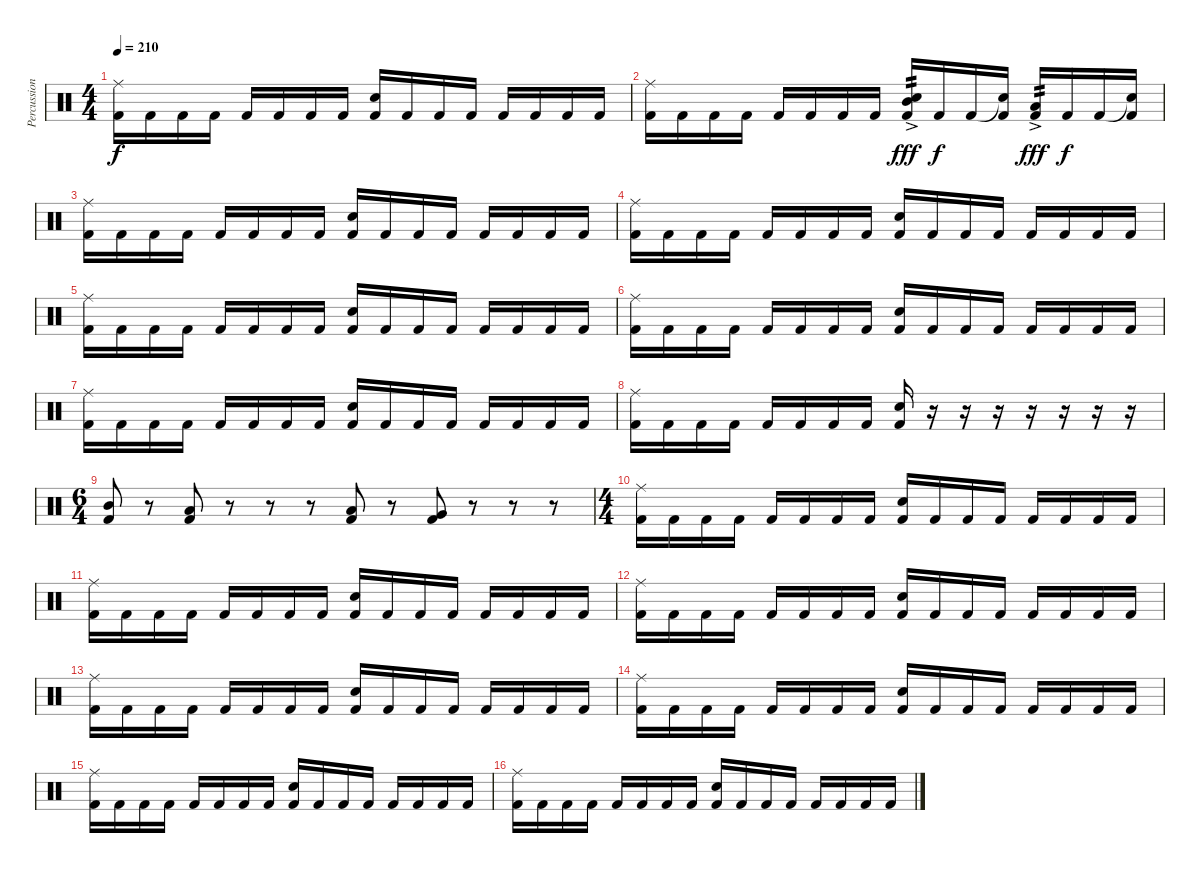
\track ("Percussions" "Percussion") {instrument percussion}
\staff {score}
\articulation defaults
\ts (4 4)
\tempo 210
\clef neutral
\ks c
("Ride (middle)" "Kick (hit) 2").16{dy f} "Kick (hit) 2".16 "Kick (hit) 2".16 "Kick (hit) 2".16 "Kick (hit) 2".16 "Kick (hit) 2".16 "Kick (hit) 2".16 "Kick (hit) 2".16 ("Snare (hit) 2" "Kick (hit) 2").16 "Kick (hit) 2".16 "Kick (hit) 2".16 "Kick (hit) 2".16 "Kick (hit) 2".16 "Kick (hit) 2".16 "Kick (hit) 2".16 "Kick (hit) 2".16 |
("Ride (middle)" "Kick (hit) 2").16 "Kick (hit) 2".16 "Kick (hit) 2".16 "Kick (hit) 2".16 "Kick (hit) 2".16 "Kick (hit) 2".16 "Kick (hit) 2".16 "Kick (hit) 2".16 ("Mid Tom (hit)"{ac} "Snare (hit) 2" "Kick (hit) 2").16{tp 2 dy fff} "Kick (hit) 2".16{dy f} "Kick (hit) 2".16 ("Snare (hit)"{t} "Kick (hit) 2").16 ("Low Tom (hit)"{ac} "Kick (hit) 2").16{tp 2 dy fff} "Kick (hit) 2".16{dy f} "Kick (hit) 2".16 ("Snare (hit)"{t} "Kick (hit) 2").16 |
("Ride (middle)" "Kick (hit) 2").16 "Kick (hit) 2".16 "Kick (hit) 2".16 "Kick (hit) 2".16 "Kick (hit) 2".16 "Kick (hit) 2".16 "Kick (hit) 2".16 "Kick (hit) 2".16 ("Snare (hit) 2" "Kick (hit) 2").16 "Kick (hit) 2".16 "Kick (hit) 2".16 "Kick (hit) 2".16 "Kick (hit) 2".16 "Kick (hit) 2".16 "Kick (hit) 2".16 "Kick (hit) 2".16 |
("Ride (middle)" "Kick (hit) 2").16 "Kick (hit) 2".16 "Kick (hit) 2".16 "Kick (hit) 2".16 "Kick (hit) 2".16 "Kick (hit) 2".16 "Kick (hit) 2".16 "Kick (hit) 2".16 ("Snare (hit) 2" "Kick (hit) 2").16 "Kick (hit) 2".16 "Kick (hit) 2".16 "Kick (hit) 2".16 "Kick (hit) 2".16 "Kick (hit) 2".16 "Kick (hit) 2".16 "Kick (hit) 2".16 |
("Ride (middle)" "Kick (hit) 2").16 "Kick (hit) 2".16 "Kick (hit) 2".16 "Kick (hit) 2".16 "Kick (hit) 2".16 "Kick (hit) 2".16 "Kick (hit) 2".16 "Kick (hit) 2".16 ("Snare (hit) 2" "Kick (hit) 2").16 "Kick (hit) 2".16 "Kick (hit) 2".16 "Kick (hit) 2".16 "Kick (hit) 2".16 "Kick (hit) 2".16 "Kick (hit) 2".16 "Kick (hit) 2".16 |
("Ride (middle)" "Kick (hit) 2").16 "Kick (hit) 2".16 "Kick (hit) 2".16 "Kick (hit) 2".16 "Kick (hit) 2".16 "Kick (hit) 2".16 "Kick (hit) 2".16 "Kick (hit) 2".16 ("Snare (hit) 2" "Kick (hit) 2").16 "Kick (hit) 2".16 "Kick (hit) 2".16 "Kick (hit) 2".16 "Kick (hit) 2".16 "Kick (hit) 2".16 "Kick (hit) 2".16 "Kick (hit) 2".16 |
("Ride (middle)" "Kick (hit) 2").16 "Kick (hit) 2".16 "Kick (hit) 2".16 "Kick (hit) 2".16 "Kick (hit) 2".16 "Kick (hit) 2".16 "Kick (hit) 2".16 "Kick (hit) 2".16 ("Snare (hit) 2" "Kick (hit) 2").16 "Kick (hit) 2".16 "Kick (hit) 2".16 "Kick (hit) 2".16 "Kick (hit) 2".16 "Kick (hit) 2".16 "Kick (hit) 2".16 "Kick (hit) 2".16 |
("Ride (middle)" "Kick (hit) 2").16 "Kick (hit) 2".16 "Kick (hit) 2".16 "Kick (hit) 2".16 "Kick (hit) 2".16 "Kick (hit) 2".16 "Kick (hit) 2".16 "Kick (hit) 2".16 ("Snare (hit) 2" "Kick (hit) 2").16 r.16 r.16 r.16 r.16 r.16 r.16 r.16 |
\ts (6 4)
("Mid Tom (hit)" "Kick (hit) 2").8 r.8 ("Low Tom (hit)" "Kick (hit) 2").8 r.8 r.8 r.8 ("Low Tom (hit)" "Kick (hit) 2").8 r.8 ("Very Low Tom (hit)" "Kick (hit) 2").8 r.8 r.8 r.8 |
\ts (4 4)
("Ride (middle)" "Kick (hit) 2").16 "Kick (hit) 2".16 "Kick (hit) 2".16 "Kick (hit) 2".16 "Kick (hit) 2".16 "Kick (hit) 2".16 "Kick (hit) 2".16 "Kick (hit) 2".16 ("Snare (hit) 2" "Kick (hit) 2").16 "Kick (hit) 2".16 "Kick (hit) 2".16 "Kick (hit) 2".16 "Kick (hit) 2".16 "Kick (hit) 2".16 "Kick (hit) 2".16 "Kick (hit) 2".16 |
("Ride (middle)" "Kick (hit) 2").16 "Kick (hit) 2".16 "Kick (hit) 2".16 "Kick (hit) 2".16 "Kick (hit) 2".16 "Kick (hit) 2".16 "Kick (hit) 2".16 "Kick (hit) 2".16 ("Snare (hit) 2" "Kick (hit) 2").16 "Kick (hit) 2".16 "Kick (hit) 2".16 "Kick (hit) 2".16 "Kick (hit) 2".16 "Kick (hit) 2".16 "Kick (hit) 2".16 "Kick (hit) 2".16 |
("Ride (middle)" "Kick (hit) 2").16 "Kick (hit) 2".16 "Kick (hit) 2".16 "Kick (hit) 2".16 "Kick (hit) 2".16 "Kick (hit) 2".16 "Kick (hit) 2".16 "Kick (hit) 2".16 ("Snare (hit) 2" "Kick (hit) 2").16 "Kick (hit) 2".16 "Kick (hit) 2".16 "Kick (hit) 2".16 "Kick (hit) 2".16 "Kick (hit) 2".16 "Kick (hit) 2".16 "Kick (hit) 2".16 |
("Ride (middle)" "Kick (hit) 2").16 "Kick (hit) 2".16 "Kick (hit) 2".16 "Kick (hit) 2".16 "Kick (hit) 2".16 "Kick (hit) 2".16 "Kick (hit) 2".16 "Kick (hit) 2".16 ("Snare (hit) 2" "Kick (hit) 2").16 "Kick (hit) 2".16 "Kick (hit) 2".16 "Kick (hit) 2".16 "Kick (hit) 2".16 "Kick (hit) 2".16 "Kick (hit) 2".16 "Kick (hit) 2".16 |
("Ride (middle)" "Kick (hit) 2").16 "Kick (hit) 2".16 "Kick (hit) 2".16 "Kick (hit) 2".16 "Kick (hit) 2".16 "Kick (hit) 2".16 "Kick (hit) 2".16 "Kick (hit) 2".16 ("Snare (hit) 2" "Kick (hit) 2").16 "Kick (hit) 2".16 "Kick (hit) 2".16 "Kick (hit) 2".16 "Kick (hit) 2".16 "Kick (hit) 2".16 "Kick (hit) 2".16 "Kick (hit) 2".16 |
("Ride (middle)" "Kick (hit) 2").16 "Kick (hit) 2".16 "Kick (hit) 2".16 "Kick (hit) 2".16 "Kick (hit) 2".16 "Kick (hit) 2".16 "Kick (hit) 2".16 "Kick (hit) 2".16 ("Snare (hit) 2" "Kick (hit) 2").16 "Kick (hit) 2".16 "Kick (hit) 2".16 "Kick (hit) 2".16 "Kick (hit) 2".16 "Kick (hit) 2".16 "Kick (hit) 2".16 "Kick (hit) 2".16 |
("Ride (middle)" "Kick (hit) 2").16 "Kick (hit) 2".16 "Kick (hit) 2".16 "Kick (hit) 2".16 "Kick (hit) 2".16 "Kick (hit) 2".16 "Kick (hit) 2".16 "Kick (hit) 2".16 ("Snare (hit) 2" "Kick (hit) 2").16 "Kick (hit) 2".16 "Kick (hit) 2".16 "Kick (hit) 2".16 "Kick (hit) 2".16 "Kick (hit) 2".16 "Kick (hit) 2".16 "Kick (hit) 2".16
